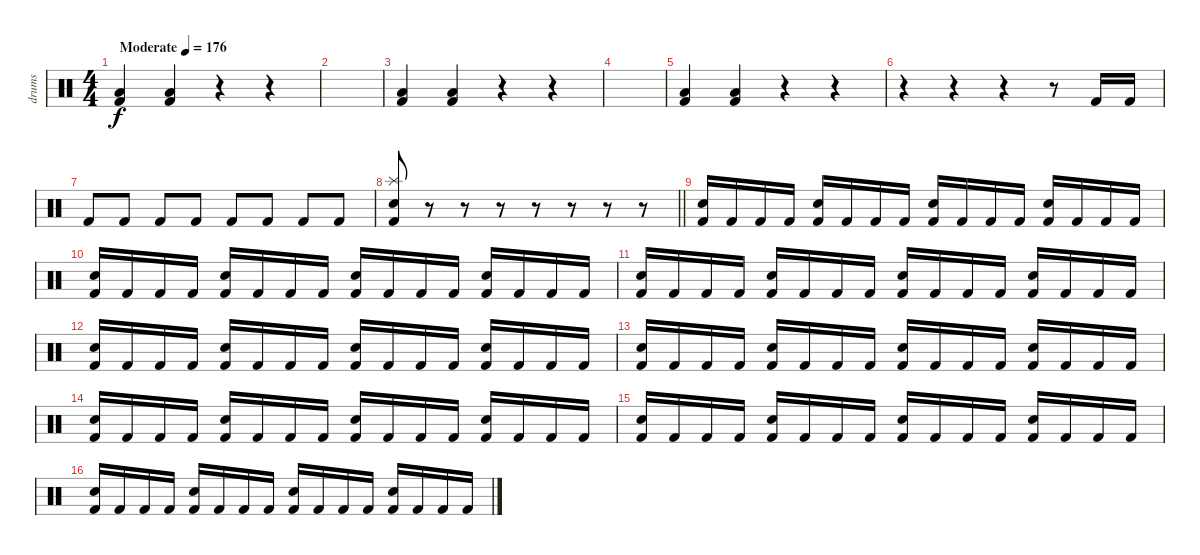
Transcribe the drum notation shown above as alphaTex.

\track ("drums" "drums") {instrument percussion}
\staff {score}
\articulation defaults
\ts (4 4)
\tempo (176 "Moderate")
\clef neutral
\ks c
("Low Tom (hit)" "Kick (hit) 2").4{dy f} ("Low Tom (hit)" "Kick (hit) 2").4 r.4 r.4 |
|
("Low Tom (hit)" "Kick (hit) 2").4 ("Low Tom (hit)" "Kick (hit) 2").4 r.4 r.4 |
|
("Low Tom (hit)" "Kick (hit) 2").4 ("Low Tom (hit)" "Kick (hit) 2").4 r.4 r.4 |
r.4 r.4 r.4 r.8 "Kick (hit) 2".16 "Kick (hit) 2".16 |
"Kick (hit) 2".8 "Kick (hit) 2".8 "Kick (hit) 2".8 "Kick (hit) 2".8 "Kick (hit) 2".8 "Kick (hit) 2".8 "Kick (hit) 2".8 "Kick (hit) 2".8 |
\barLineRight lightlight
("Splash (hit)" "Snare (hit) 2" "Kick (hit) 2").8 r.8 r.8 r.8 r.8 r.8 r.8 r.8 |
("Snare (hit) 2" "Kick (hit) 2").16 "Kick (hit) 2".16 "Kick (hit) 2".16 "Kick (hit) 2".16 ("Snare (hit) 2" "Kick (hit) 2").16 "Kick (hit) 2".16 "Kick (hit) 2".16 "Kick (hit) 2".16 ("Snare (hit) 2" "Kick (hit) 2").16 "Kick (hit) 2".16 "Kick (hit) 2".16 "Kick (hit) 2".16 ("Snare (hit) 2" "Kick (hit) 2").16 "Kick (hit) 2".16 "Kick (hit) 2".16 "Kick (hit) 2".16 |
("Snare (hit) 2" "Kick (hit) 2").16 "Kick (hit) 2".16 "Kick (hit) 2".16 "Kick (hit) 2".16 ("Snare (hit) 2" "Kick (hit) 2").16 "Kick (hit) 2".16 "Kick (hit) 2".16 "Kick (hit) 2".16 ("Snare (hit) 2" "Kick (hit) 2").16 "Kick (hit) 2".16 "Kick (hit) 2".16 "Kick (hit) 2".16 ("Snare (hit) 2" "Kick (hit) 2").16 "Kick (hit) 2".16 "Kick (hit) 2".16 "Kick (hit) 2".16 |
("Snare (hit) 2" "Kick (hit) 2").16 "Kick (hit) 2".16 "Kick (hit) 2".16 "Kick (hit) 2".16 ("Snare (hit) 2" "Kick (hit) 2").16 "Kick (hit) 2".16 "Kick (hit) 2".16 "Kick (hit) 2".16 ("Snare (hit) 2" "Kick (hit) 2").16 "Kick (hit) 2".16 "Kick (hit) 2".16 "Kick (hit) 2".16 ("Snare (hit) 2" "Kick (hit) 2").16 "Kick (hit) 2".16 "Kick (hit) 2".16 "Kick (hit) 2".16 |
("Snare (hit) 2" "Kick (hit) 2").16 "Kick (hit) 2".16 "Kick (hit) 2".16 "Kick (hit) 2".16 ("Snare (hit) 2" "Kick (hit) 2").16 "Kick (hit) 2".16 "Kick (hit) 2".16 "Kick (hit) 2".16 ("Snare (hit) 2" "Kick (hit) 2").16 "Kick (hit) 2".16 "Kick (hit) 2".16 "Kick (hit) 2".16 ("Snare (hit) 2" "Kick (hit) 2").16 "Kick (hit) 2".16 "Kick (hit) 2".16 "Kick (hit) 2".16 |
("Snare (hit) 2" "Kick (hit) 2").16 "Kick (hit) 2".16 "Kick (hit) 2".16 "Kick (hit) 2".16 ("Snare (hit) 2" "Kick (hit) 2").16 "Kick (hit) 2".16 "Kick (hit) 2".16 "Kick (hit) 2".16 ("Snare (hit) 2" "Kick (hit) 2").16 "Kick (hit) 2".16 "Kick (hit) 2".16 "Kick (hit) 2".16 ("Snare (hit) 2" "Kick (hit) 2").16 "Kick (hit) 2".16 "Kick (hit) 2".16 "Kick (hit) 2".16 |
("Snare (hit) 2" "Kick (hit) 2").16 "Kick (hit) 2".16 "Kick (hit) 2".16 "Kick (hit) 2".16 ("Snare (hit) 2" "Kick (hit) 2").16 "Kick (hit) 2".16 "Kick (hit) 2".16 "Kick (hit) 2".16 ("Snare (hit) 2" "Kick (hit) 2").16 "Kick (hit) 2".16 "Kick (hit) 2".16 "Kick (hit) 2".16 ("Snare (hit) 2" "Kick (hit) 2").16 "Kick (hit) 2".16 "Kick (hit) 2".16 "Kick (hit) 2".16 |
("Snare (hit) 2" "Kick (hit) 2").16 "Kick (hit) 2".16 "Kick (hit) 2".16 "Kick (hit) 2".16 ("Snare (hit) 2" "Kick (hit) 2").16 "Kick (hit) 2".16 "Kick (hit) 2".16 "Kick (hit) 2".16 ("Snare (hit) 2" "Kick (hit) 2").16 "Kick (hit) 2".16 "Kick (hit) 2".16 "Kick (hit) 2".16 ("Snare (hit) 2" "Kick (hit) 2").16 "Kick (hit) 2".16 "Kick (hit) 2".16 "Kick (hit) 2".16 |
("Snare (hit) 2" "Kick (hit) 2").16 "Kick (hit) 2".16 "Kick (hit) 2".16 "Kick (hit) 2".16 ("Snare (hit) 2" "Kick (hit) 2").16 "Kick (hit) 2".16 "Kick (hit) 2".16 "Kick (hit) 2".16 ("Snare (hit) 2" "Kick (hit) 2").16 "Kick (hit) 2".16 "Kick (hit) 2".16 "Kick (hit) 2".16 ("Snare (hit) 2" "Kick (hit) 2").16 "Kick (hit) 2".16 "Kick (hit) 2".16 "Kick (hit) 2".16
